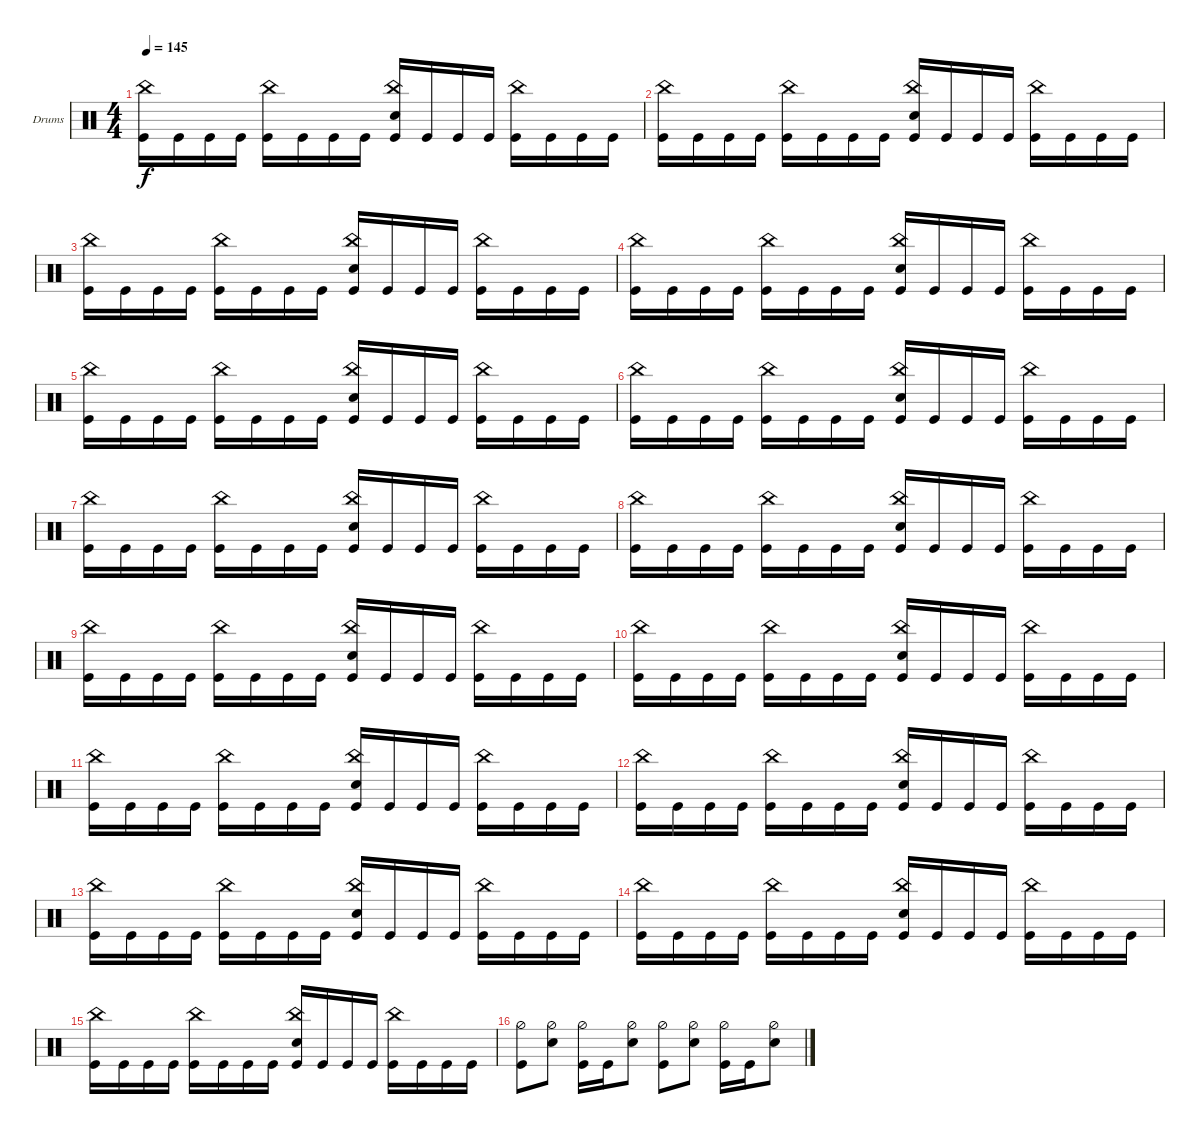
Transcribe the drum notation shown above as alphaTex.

\bracketExtendMode groupsimilarinstruments
\firstSystemTrackNameOrientation horizontal
\otherSystemsTrackNameOrientation horizontal
\track ("Drumkit" "Drums") {instrument percussion}
\staff {score}
\articulation defaults
\ts (4 4)
\tempo 145
\clef neutral
\ks c
("Kick (hit)" "China (hit)").16{dy f} "Kick (hit)".16 "Kick (hit)".16 "Kick (hit)".16 ("Kick (hit)" "China (hit)").16 "Kick (hit)".16 "Kick (hit)".16 "Kick (hit)".16 ("Snare (hit) 2" "Kick (hit)" "China (hit)").16 "Kick (hit)".16 "Kick (hit)".16 "Kick (hit)".16 ("Kick (hit)" "China (hit)").16 "Kick (hit)".16 "Kick (hit)".16 "Kick (hit)".16 |
("Kick (hit)" "China (hit)").16 "Kick (hit)".16 "Kick (hit)".16 "Kick (hit)".16 ("Kick (hit)" "China (hit)").16 "Kick (hit)".16 "Kick (hit)".16 "Kick (hit)".16 ("Snare (hit) 2" "Kick (hit)" "China (hit)").16 "Kick (hit)".16 "Kick (hit)".16 "Kick (hit)".16 ("Kick (hit)" "China (hit)").16 "Kick (hit)".16 "Kick (hit)".16 "Kick (hit)".16 |
("Kick (hit)" "China (hit)").16 "Kick (hit)".16 "Kick (hit)".16 "Kick (hit)".16 ("Kick (hit)" "China (hit)").16 "Kick (hit)".16 "Kick (hit)".16 "Kick (hit)".16 ("Snare (hit) 2" "Kick (hit)" "China (hit)").16 "Kick (hit)".16 "Kick (hit)".16 "Kick (hit)".16 ("Kick (hit)" "China (hit)").16 "Kick (hit)".16 "Kick (hit)".16 "Kick (hit)".16 |
("Kick (hit)" "China (hit)").16 "Kick (hit)".16 "Kick (hit)".16 "Kick (hit)".16 ("Kick (hit)" "China (hit)").16 "Kick (hit)".16 "Kick (hit)".16 "Kick (hit)".16 ("Snare (hit) 2" "Kick (hit)" "China (hit)").16 "Kick (hit)".16 "Kick (hit)".16 "Kick (hit)".16 ("Kick (hit)" "China (hit)").16 "Kick (hit)".16 "Kick (hit)".16 "Kick (hit)".16 |
("Kick (hit)" "China (hit)").16 "Kick (hit)".16 "Kick (hit)".16 "Kick (hit)".16 ("Kick (hit)" "China (hit)").16 "Kick (hit)".16 "Kick (hit)".16 "Kick (hit)".16 ("Snare (hit) 2" "Kick (hit)" "China (hit)").16 "Kick (hit)".16 "Kick (hit)".16 "Kick (hit)".16 ("Kick (hit)" "China (hit)").16 "Kick (hit)".16 "Kick (hit)".16 "Kick (hit)".16 |
("Kick (hit)" "China (hit)").16 "Kick (hit)".16 "Kick (hit)".16 "Kick (hit)".16 ("Kick (hit)" "China (hit)").16 "Kick (hit)".16 "Kick (hit)".16 "Kick (hit)".16 ("Snare (hit) 2" "Kick (hit)" "China (hit)").16 "Kick (hit)".16 "Kick (hit)".16 "Kick (hit)".16 ("Kick (hit)" "China (hit)").16 "Kick (hit)".16 "Kick (hit)".16 "Kick (hit)".16 |
("Kick (hit)" "China (hit)").16 "Kick (hit)".16 "Kick (hit)".16 "Kick (hit)".16 ("Kick (hit)" "China (hit)").16 "Kick (hit)".16 "Kick (hit)".16 "Kick (hit)".16 ("Snare (hit) 2" "Kick (hit)" "China (hit)").16 "Kick (hit)".16 "Kick (hit)".16 "Kick (hit)".16 ("Kick (hit)" "China (hit)").16 "Kick (hit)".16 "Kick (hit)".16 "Kick (hit)".16 |
("Kick (hit)" "China (hit)").16 "Kick (hit)".16 "Kick (hit)".16 "Kick (hit)".16 ("Kick (hit)" "China (hit)").16 "Kick (hit)".16 "Kick (hit)".16 "Kick (hit)".16 ("Snare (hit) 2" "Kick (hit)" "China (hit)").16 "Kick (hit)".16 "Kick (hit)".16 "Kick (hit)".16 ("Kick (hit)" "China (hit)").16 "Kick (hit)".16 "Kick (hit)".16 "Kick (hit)".16 |
("Kick (hit)" "China (hit)").16 "Kick (hit)".16 "Kick (hit)".16 "Kick (hit)".16 ("Kick (hit)" "China (hit)").16 "Kick (hit)".16 "Kick (hit)".16 "Kick (hit)".16 ("Snare (hit) 2" "Kick (hit)" "China (hit)").16 "Kick (hit)".16 "Kick (hit)".16 "Kick (hit)".16 ("Kick (hit)" "China (hit)").16 "Kick (hit)".16 "Kick (hit)".16 "Kick (hit)".16 |
("Kick (hit)" "China (hit)").16 "Kick (hit)".16 "Kick (hit)".16 "Kick (hit)".16 ("Kick (hit)" "China (hit)").16 "Kick (hit)".16 "Kick (hit)".16 "Kick (hit)".16 ("Snare (hit) 2" "Kick (hit)" "China (hit)").16 "Kick (hit)".16 "Kick (hit)".16 "Kick (hit)".16 ("Kick (hit)" "China (hit)").16 "Kick (hit)".16 "Kick (hit)".16 "Kick (hit)".16 |
("Kick (hit)" "China (hit)").16 "Kick (hit)".16 "Kick (hit)".16 "Kick (hit)".16 ("Kick (hit)" "China (hit)").16 "Kick (hit)".16 "Kick (hit)".16 "Kick (hit)".16 ("Snare (hit) 2" "Kick (hit)" "China (hit)").16 "Kick (hit)".16 "Kick (hit)".16 "Kick (hit)".16 ("Kick (hit)" "China (hit)").16 "Kick (hit)".16 "Kick (hit)".16 "Kick (hit)".16 |
("Kick (hit)" "China (hit)").16 "Kick (hit)".16 "Kick (hit)".16 "Kick (hit)".16 ("Kick (hit)" "China (hit)").16 "Kick (hit)".16 "Kick (hit)".16 "Kick (hit)".16 ("Snare (hit) 2" "Kick (hit)" "China (hit)").16 "Kick (hit)".16 "Kick (hit)".16 "Kick (hit)".16 ("Kick (hit)" "China (hit)").16 "Kick (hit)".16 "Kick (hit)".16 "Kick (hit)".16 |
("Kick (hit)" "China (hit)").16 "Kick (hit)".16 "Kick (hit)".16 "Kick (hit)".16 ("Kick (hit)" "China (hit)").16 "Kick (hit)".16 "Kick (hit)".16 "Kick (hit)".16 ("Snare (hit) 2" "Kick (hit)" "China (hit)").16 "Kick (hit)".16 "Kick (hit)".16 "Kick (hit)".16 ("Kick (hit)" "China (hit)").16 "Kick (hit)".16 "Kick (hit)".16 "Kick (hit)".16 |
("Kick (hit)" "China (hit)").16 "Kick (hit)".16 "Kick (hit)".16 "Kick (hit)".16 ("Kick (hit)" "China (hit)").16 "Kick (hit)".16 "Kick (hit)".16 "Kick (hit)".16 ("Snare (hit) 2" "Kick (hit)" "China (hit)").16 "Kick (hit)".16 "Kick (hit)".16 "Kick (hit)".16 ("Kick (hit)" "China (hit)").16 "Kick (hit)".16 "Kick (hit)".16 "Kick (hit)".16 |
("Kick (hit)" "China (hit)").16 "Kick (hit)".16 "Kick (hit)".16 "Kick (hit)".16 ("Kick (hit)" "China (hit)").16 "Kick (hit)".16 "Kick (hit)".16 "Kick (hit)".16 ("Snare (hit) 2" "Kick (hit)" "China (hit)").16 "Kick (hit)".16 "Kick (hit)".16 "Kick (hit)".16 ("Kick (hit)" "China (hit)").16 "Kick (hit)".16 "Kick (hit)".16 "Kick (hit)".16 |
("Kick (hit)" "Hi-Hat (half)").8 ("Snare (hit) 2" "Hi-Hat (half)").8 ("Kick (hit)" "Hi-Hat (half)").16 "Kick (hit)".16 ("Snare (hit) 2" "Hi-Hat (half)").8 ("Kick (hit)" "Hi-Hat (half)").8 ("Snare (hit) 2" "Hi-Hat (half)").8 ("Kick (hit)" "Hi-Hat (half)").16 "Kick (hit)".16 ("Snare (hit) 2" "Hi-Hat (half)").8
